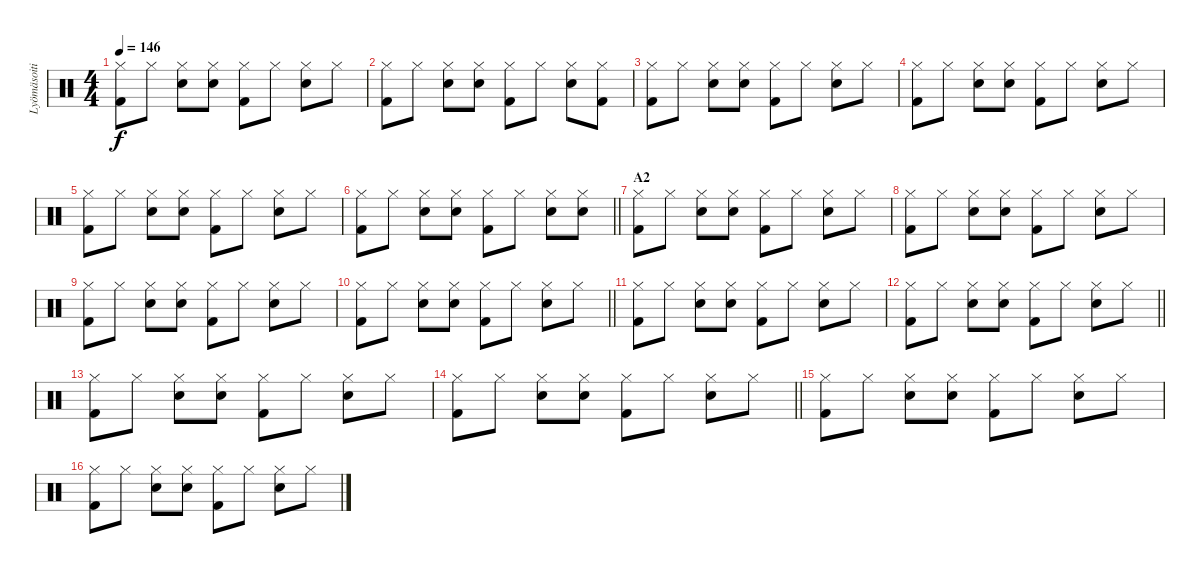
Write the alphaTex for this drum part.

\track ("Lyömäsoitin" "Lyömäsoiti") {instrument percussion}
\staff {score}
\articulation defaults
\ts (4 4)
\tempo 146
\clef neutral
\ks c
("Hi-Hat (closed)" "Kick (hit) 2").8{dy f} "Hi-Hat (closed)".8 ("Hi-Hat (closed)" "Electric Snare (hit)").8 ("Hi-Hat (closed)" "Electric Snare (hit)").8 ("Hi-Hat (closed)" "Kick (hit) 2").8 "Hi-Hat (closed)".8 ("Hi-Hat (closed)" "Electric Snare (hit)").8 "Hi-Hat (closed)".8 |
("Hi-Hat (closed)" "Kick (hit) 2").8 "Hi-Hat (closed)".8 ("Hi-Hat (closed)" "Electric Snare (hit)").8 ("Hi-Hat (closed)" "Electric Snare (hit)").8 ("Hi-Hat (closed)" "Kick (hit) 2").8 "Hi-Hat (closed)".8 ("Hi-Hat (closed)" "Electric Snare (hit)").8 ("Hi-Hat (closed)" "Kick (hit) 2").8 |
("Hi-Hat (closed)" "Kick (hit) 2").8 "Hi-Hat (closed)".8 ("Hi-Hat (closed)" "Electric Snare (hit)").8 ("Hi-Hat (closed)" "Electric Snare (hit)").8 ("Hi-Hat (closed)" "Kick (hit) 2").8 "Hi-Hat (closed)".8 ("Hi-Hat (closed)" "Electric Snare (hit)").8 "Hi-Hat (closed)".8 |
("Hi-Hat (closed)" "Kick (hit) 2").8 "Hi-Hat (closed)".8 ("Hi-Hat (closed)" "Electric Snare (hit)").8 ("Hi-Hat (closed)" "Electric Snare (hit)").8 ("Hi-Hat (closed)" "Kick (hit) 2").8 "Hi-Hat (closed)".8 ("Hi-Hat (closed)" "Electric Snare (hit)").8 "Hi-Hat (closed)".8 |
("Hi-Hat (closed)" "Kick (hit) 2").8 "Hi-Hat (closed)".8 ("Hi-Hat (closed)" "Electric Snare (hit)").8 ("Hi-Hat (closed)" "Electric Snare (hit)").8 ("Hi-Hat (closed)" "Kick (hit) 2").8 "Hi-Hat (closed)".8 ("Hi-Hat (closed)" "Electric Snare (hit)").8 "Hi-Hat (closed)".8 |
\barLineRight lightlight
("Hi-Hat (closed)" "Kick (hit) 2").8 "Hi-Hat (closed)".8 ("Hi-Hat (closed)" "Electric Snare (hit)").8 ("Hi-Hat (closed)" "Electric Snare (hit)").8 ("Hi-Hat (closed)" "Kick (hit) 2").8 "Hi-Hat (closed)".8 ("Hi-Hat (closed)" "Electric Snare (hit)").8 ("Hi-Hat (closed)" "Electric Snare (hit)").8 |
\section ("" "A2")
("Hi-Hat (closed)" "Kick (hit) 2").8 "Hi-Hat (closed)".8 ("Hi-Hat (closed)" "Electric Snare (hit)").8 ("Hi-Hat (closed)" "Electric Snare (hit)").8 ("Hi-Hat (closed)" "Kick (hit) 2").8 "Hi-Hat (closed)".8 ("Hi-Hat (closed)" "Electric Snare (hit)").8 "Hi-Hat (closed)".8 |
("Hi-Hat (closed)" "Kick (hit) 2").8 "Hi-Hat (closed)".8 ("Hi-Hat (closed)" "Electric Snare (hit)").8 ("Hi-Hat (closed)" "Electric Snare (hit)").8 ("Hi-Hat (closed)" "Kick (hit) 2").8 "Hi-Hat (closed)".8 ("Hi-Hat (closed)" "Electric Snare (hit)").8 "Hi-Hat (closed)".8 |
("Hi-Hat (closed)" "Kick (hit) 2").8 "Hi-Hat (closed)".8 ("Hi-Hat (closed)" "Electric Snare (hit)").8 ("Hi-Hat (closed)" "Electric Snare (hit)").8 ("Hi-Hat (closed)" "Kick (hit) 2").8 "Hi-Hat (closed)".8 ("Hi-Hat (closed)" "Electric Snare (hit)").8 "Hi-Hat (closed)".8 |
\barLineRight lightlight
("Hi-Hat (closed)" "Kick (hit) 2").8 "Hi-Hat (closed)".8 ("Hi-Hat (closed)" "Electric Snare (hit)").8 ("Hi-Hat (closed)" "Electric Snare (hit)").8 ("Hi-Hat (closed)" "Kick (hit) 2").8 "Hi-Hat (closed)".8 ("Hi-Hat (closed)" "Electric Snare (hit)").8 "Hi-Hat (closed)".8 |
("Hi-Hat (closed)" "Kick (hit) 2").8 "Hi-Hat (closed)".8 ("Hi-Hat (closed)" "Electric Snare (hit)").8 ("Hi-Hat (closed)" "Electric Snare (hit)").8 ("Hi-Hat (closed)" "Kick (hit) 2").8 "Hi-Hat (closed)".8 ("Hi-Hat (closed)" "Electric Snare (hit)").8 "Hi-Hat (closed)".8 |
\barLineRight lightlight
("Hi-Hat (closed)" "Kick (hit) 2").8 "Hi-Hat (closed)".8 ("Hi-Hat (closed)" "Electric Snare (hit)").8 ("Hi-Hat (closed)" "Electric Snare (hit)").8 ("Hi-Hat (closed)" "Kick (hit) 2").8 "Hi-Hat (closed)".8 ("Hi-Hat (closed)" "Electric Snare (hit)").8 "Hi-Hat (closed)".8 |
("Hi-Hat (closed)" "Kick (hit) 2").8 "Hi-Hat (closed)".8 ("Hi-Hat (closed)" "Electric Snare (hit)").8 ("Hi-Hat (closed)" "Electric Snare (hit)").8 ("Hi-Hat (closed)" "Kick (hit) 2").8 "Hi-Hat (closed)".8 ("Hi-Hat (closed)" "Electric Snare (hit)").8 "Hi-Hat (closed)".8 |
\barLineRight lightlight
("Hi-Hat (closed)" "Kick (hit) 2").8 "Hi-Hat (closed)".8 ("Hi-Hat (closed)" "Electric Snare (hit)").8 ("Hi-Hat (closed)" "Electric Snare (hit)").8 ("Hi-Hat (closed)" "Kick (hit) 2").8 "Hi-Hat (closed)".8 ("Hi-Hat (closed)" "Electric Snare (hit)").8 "Hi-Hat (closed)".8 |
("Hi-Hat (closed)" "Kick (hit) 2").8 "Hi-Hat (closed)".8 ("Hi-Hat (closed)" "Electric Snare (hit)").8 ("Hi-Hat (closed)" "Electric Snare (hit)").8 ("Hi-Hat (closed)" "Kick (hit) 2").8 "Hi-Hat (closed)".8 ("Hi-Hat (closed)" "Electric Snare (hit)").8 "Hi-Hat (closed)".8 |
("Hi-Hat (closed)" "Kick (hit) 2").8 "Hi-Hat (closed)".8 ("Hi-Hat (closed)" "Electric Snare (hit)").8 ("Hi-Hat (closed)" "Electric Snare (hit)").8 ("Hi-Hat (closed)" "Kick (hit) 2").8 "Hi-Hat (closed)".8 ("Hi-Hat (closed)" "Electric Snare (hit)").8 "Hi-Hat (closed)".8
